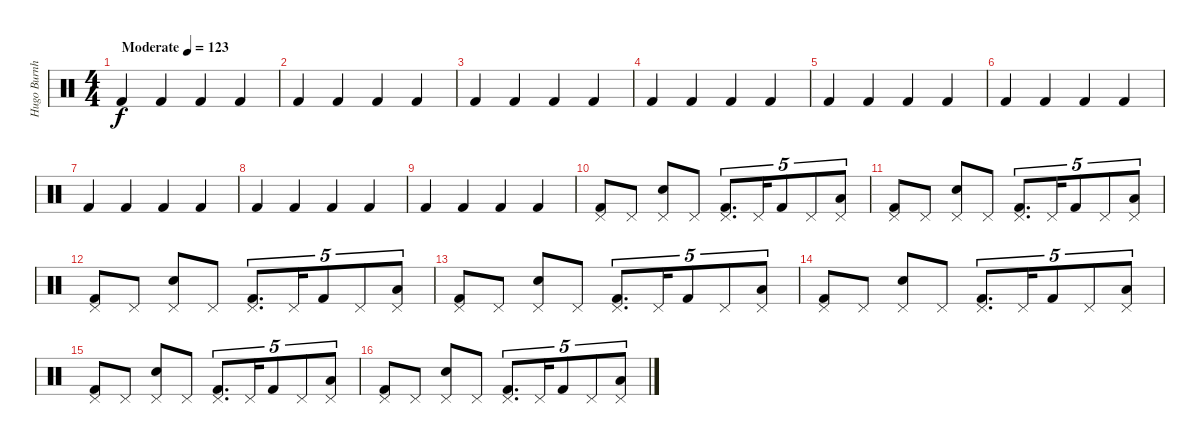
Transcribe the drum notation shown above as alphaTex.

\track ("Hugo Burnham" "Hugo Burnh") {instrument percussion}
\staff {score}
\articulation defaults
\ts (4 4)
\tempo (123 "Moderate")
\clef neutral
\ks c "Kick (hit) 2".4{dy f} "Kick (hit) 2".4 "Kick (hit) 2".4 "Kick (hit) 2".4
|
"Kick (hit) 2".4 "Kick (hit) 2".4 "Kick (hit) 2".4 "Kick (hit) 2".4 |
"Kick (hit) 2".4 "Kick (hit) 2".4 "Kick (hit) 2".4 "Kick (hit) 2".4 |
"Kick (hit) 2".4 "Kick (hit) 2".4 "Kick (hit) 2".4 "Kick (hit) 2".4 |
"Kick (hit) 2".4 "Kick (hit) 2".4 "Kick (hit) 2".4 "Kick (hit) 2".4 |
"Kick (hit) 2".4 "Kick (hit) 2".4 "Kick (hit) 2".4 "Kick (hit) 2".4 |
"Kick (hit) 2".4 "Kick (hit) 2".4 "Kick (hit) 2".4 "Kick (hit) 2".4 |
"Kick (hit) 2".4 "Kick (hit) 2".4 "Kick (hit) 2".4 "Kick (hit) 2".4 |
"Kick (hit) 2".4 "Kick (hit) 2".4 "Kick (hit) 2".4 "Kick (hit) 2".4 |
("Pedal Hi-Hat (hit)" "Kick (hit) 2").8 "Pedal Hi-Hat (hit)".8 ("Pedal Hi-Hat (hit)" "Electric Snare (hit)").8 "Pedal Hi-Hat (hit)".8 ("Pedal Hi-Hat (hit)" "Kick (hit) 2").8{d tu (5 4)} "Pedal Hi-Hat (hit)".16{tu (5 4)} "Kick (hit) 2".8{tu (5 4)} "Pedal Hi-Hat (hit)".8{tu (5 4)} ("Pedal Hi-Hat (hit)" "Low Floor Tom (hit)").8{tu (5 4)} |
("Pedal Hi-Hat (hit)" "Kick (hit) 2").8 "Pedal Hi-Hat (hit)".8 ("Pedal Hi-Hat (hit)" "Electric Snare (hit)").8 "Pedal Hi-Hat (hit)".8 ("Pedal Hi-Hat (hit)" "Kick (hit) 2").8{d tu (5 4)} "Pedal Hi-Hat (hit)".16{tu (5 4)} "Kick (hit) 2".8{tu (5 4)} "Pedal Hi-Hat (hit)".8{tu (5 4)} ("Pedal Hi-Hat (hit)" "Low Floor Tom (hit)").8{tu (5 4)} |
("Pedal Hi-Hat (hit)" "Kick (hit) 2").8 "Pedal Hi-Hat (hit)".8 ("Pedal Hi-Hat (hit)" "Electric Snare (hit)").8 "Pedal Hi-Hat (hit)".8 ("Pedal Hi-Hat (hit)" "Kick (hit) 2").8{d tu (5 4)} "Pedal Hi-Hat (hit)".16{tu (5 4)} "Kick (hit) 2".8{tu (5 4)} "Pedal Hi-Hat (hit)".8{tu (5 4)} ("Pedal Hi-Hat (hit)" "Low Floor Tom (hit)").8{tu (5 4)} |
("Pedal Hi-Hat (hit)" "Kick (hit) 2").8 "Pedal Hi-Hat (hit)".8 ("Pedal Hi-Hat (hit)" "Electric Snare (hit)").8 "Pedal Hi-Hat (hit)".8 ("Pedal Hi-Hat (hit)" "Kick (hit) 2").8{d tu (5 4)} "Pedal Hi-Hat (hit)".16{tu (5 4)} "Kick (hit) 2".8{tu (5 4)} "Pedal Hi-Hat (hit)".8{tu (5 4)} ("Pedal Hi-Hat (hit)" "Low Floor Tom (hit)").8{tu (5 4)} |
("Pedal Hi-Hat (hit)" "Kick (hit) 2").8 "Pedal Hi-Hat (hit)".8 ("Pedal Hi-Hat (hit)" "Electric Snare (hit)").8 "Pedal Hi-Hat (hit)".8 ("Pedal Hi-Hat (hit)" "Kick (hit) 2").8{d tu (5 4)} "Pedal Hi-Hat (hit)".16{tu (5 4)} "Kick (hit) 2".8{tu (5 4)} "Pedal Hi-Hat (hit)".8{tu (5 4)} ("Pedal Hi-Hat (hit)" "Low Floor Tom (hit)").8{tu (5 4)} |
("Pedal Hi-Hat (hit)" "Kick (hit) 2").8 "Pedal Hi-Hat (hit)".8 ("Pedal Hi-Hat (hit)" "Electric Snare (hit)").8 "Pedal Hi-Hat (hit)".8 ("Pedal Hi-Hat (hit)" "Kick (hit) 2").8{d tu (5 4)} "Pedal Hi-Hat (hit)".16{tu (5 4)} "Kick (hit) 2".8{tu (5 4)} "Pedal Hi-Hat (hit)".8{tu (5 4)} ("Pedal Hi-Hat (hit)" "Low Floor Tom (hit)").8{tu (5 4)} |
("Pedal Hi-Hat (hit)" "Kick (hit) 2").8 "Pedal Hi-Hat (hit)".8 ("Pedal Hi-Hat (hit)" "Electric Snare (hit)").8 "Pedal Hi-Hat (hit)".8 ("Pedal Hi-Hat (hit)" "Kick (hit) 2").8{d tu (5 4)} "Pedal Hi-Hat (hit)".16{tu (5 4)} "Kick (hit) 2".8{tu (5 4)} "Pedal Hi-Hat (hit)".8{tu (5 4)} ("Pedal Hi-Hat (hit)" "Low Floor Tom (hit)").8{tu (5 4)}
